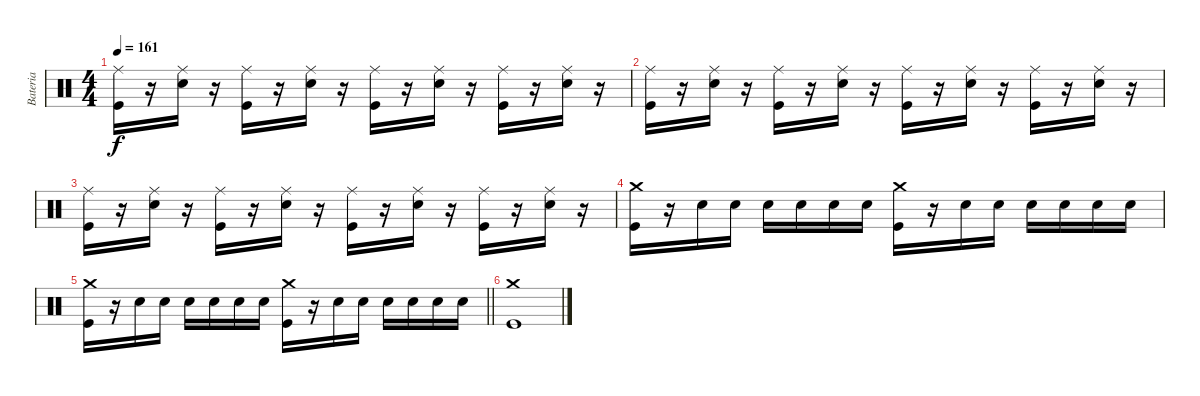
\track ("Bateria" "Bateria") {instrument percussion}
\staff {score}
\articulation defaults
\ts (4 4)
\tempo 161
\clef neutral
\ks c
("Ride (middle)" "Kick (hit)").16{dy f} r.16 ("Ride (middle)" "Snare (hit) 2").16 r.16 ("Ride (middle)" "Kick (hit)").16 r.16 ("Ride (middle)" "Snare (hit) 2").16 r.16 ("Ride (middle)" "Kick (hit)").16 r.16 ("Ride (middle)" "Snare (hit) 2").16 r.16 ("Ride (middle)" "Kick (hit)").16 r.16 ("Ride (middle)" "Snare (hit) 2").16 r.16 |
("Ride (middle)" "Kick (hit)").16 r.16 ("Ride (middle)" "Snare (hit) 2").16 r.16 ("Ride (middle)" "Kick (hit)").16 r.16 ("Ride (middle)" "Snare (hit) 2").16 r.16 ("Ride (middle)" "Kick (hit)").16 r.16 ("Ride (middle)" "Snare (hit) 2").16 r.16 ("Ride (middle)" "Kick (hit)").16 r.16 ("Ride (middle)" "Snare (hit) 2").16 r.16 |
("Ride (middle)" "Kick (hit)").16 r.16 ("Ride (middle)" "Snare (hit) 2").16 r.16 ("Ride (middle)" "Kick (hit)").16 r.16 ("Ride (middle)" "Snare (hit) 2").16 r.16 ("Ride (middle)" "Kick (hit)").16 r.16 ("Ride (middle)" "Snare (hit) 2").16 r.16 ("Ride (middle)" "Kick (hit)").16 r.16 ("Ride (middle)" "Snare (hit) 2").16 r.16 |
("Crash medium (hit)" "Kick (hit)").16 r.16 "Snare (hit) 2".16 "Snare (hit) 2".16 "Snare (hit) 2".16 "Snare (hit) 2".16 "Snare (hit) 2".16 "Snare (hit) 2".16 ("Crash medium (hit)" "Kick (hit)").16 r.16 "Snare (hit) 2".16 "Snare (hit) 2".16 "Snare (hit) 2".16 "Snare (hit) 2".16 "Snare (hit) 2".16 "Snare (hit) 2".16 |
\barLineRight lightlight
("Crash medium (hit)" "Kick (hit)").16 r.16 "Snare (hit) 2".16 "Snare (hit) 2".16 "Snare (hit) 2".16 "Snare (hit) 2".16 "Snare (hit) 2".16 "Snare (hit) 2".16 ("Crash medium (hit)" "Kick (hit)").16 r.16 "Snare (hit) 2".16 "Snare (hit) 2".16 "Snare (hit) 2".16 "Snare (hit) 2".16 "Snare (hit) 2".16 "Snare (hit) 2".16 |
("Crash medium (hit)" "Kick (hit)").1
